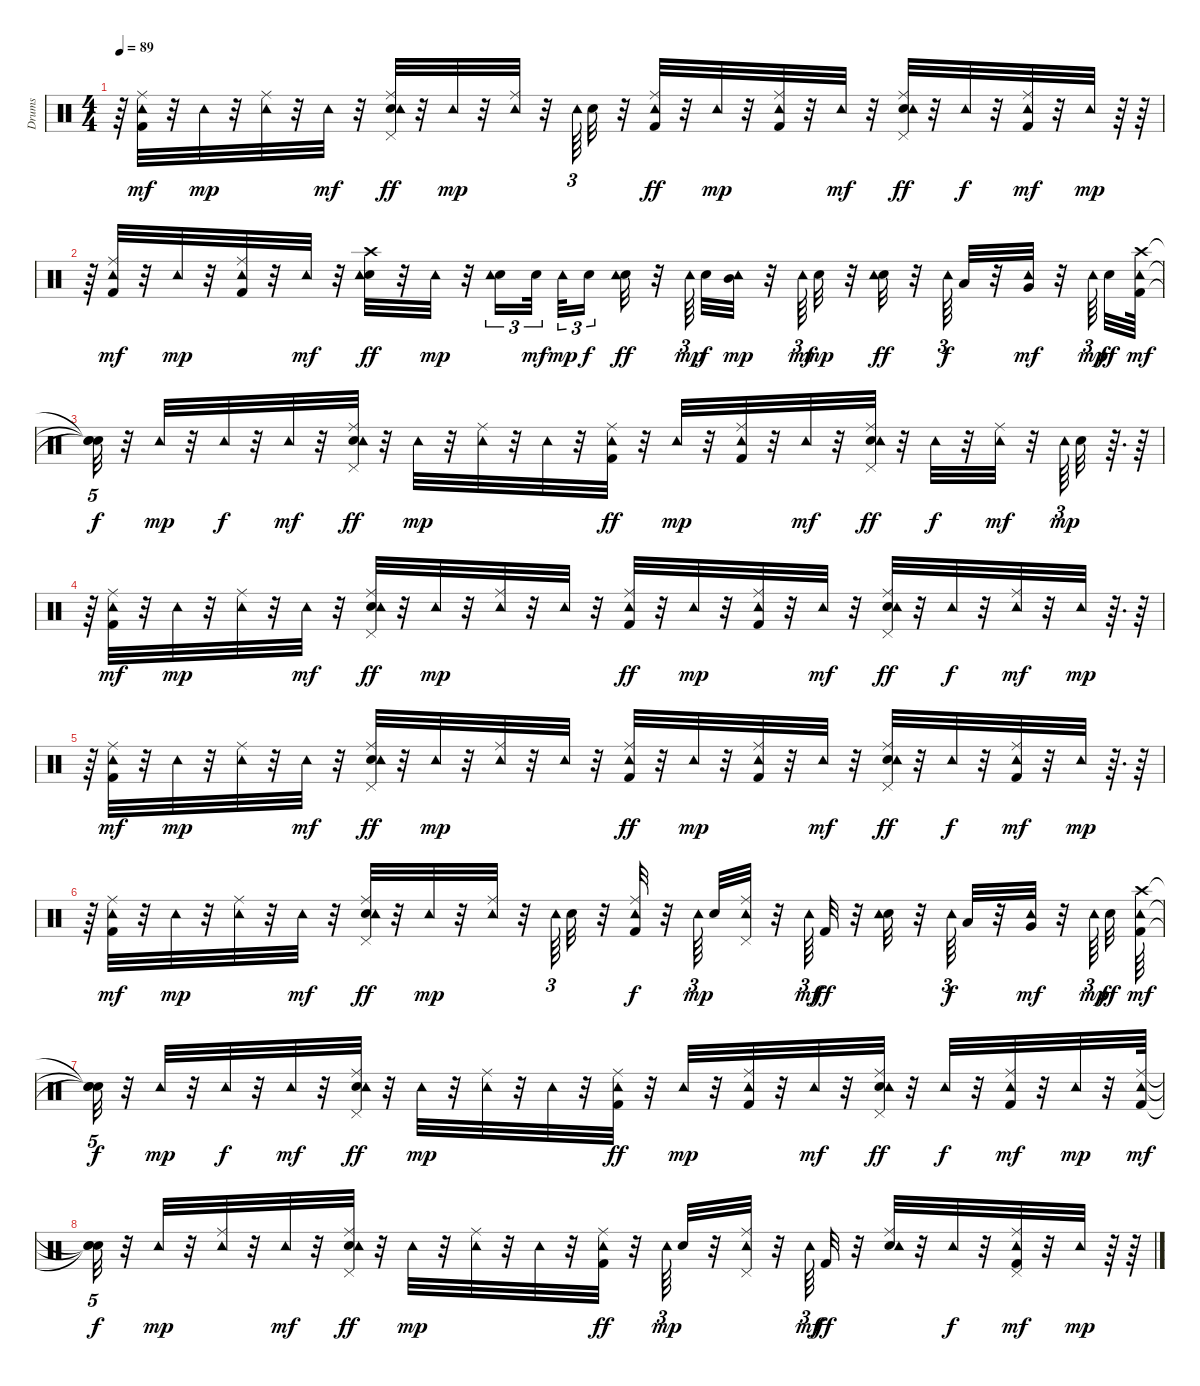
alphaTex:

\track ("Drums   " "Drums   ") {instrument percussion}
\staff {score}
\articulation defaults
\ts (4 4)
\tempo 89
\clef neutral
\ks c
r.64{dy mp} ("Kick (hit) 2" "Ride (middle)" "Tambourine (hit)").32{dy mf} r.32 "Tambourine (hit)".32{dy mp} r.32 ("Ride (middle)" "Tambourine (hit)").32 r.32 "Tambourine (hit)".32{dy mf} r.32 ("Electric Snare (hit)" "Pedal Hi-Hat (hit)" "Ride (middle)" "Tambourine (hit)").32{dy ff} r.32 "Tambourine (hit)".32{dy mp} r.32 ("Ride (middle)" "Tambourine (hit)").32 r.32 "Tambourine (hit)".64{tu (3 2)} "Electric Snare (hit)".32 r.32 ("Kick (hit) 2" "Ride (middle)" "Tambourine (hit)").32{dy ff} r.32 "Tambourine (hit)".32{dy mp} r.32 ("Kick (hit) 2" "Ride (middle)" "Tambourine (hit)").32 r.32 "Tambourine (hit)".32{dy mf} r.32 ("Electric Snare (hit)" "Pedal Hi-Hat (hit)" "Ride (middle)" "Tambourine (hit)").32{dy ff} r.32 "Tambourine (hit)".32{dy f} r.32 ("Kick (hit) 2" "Ride (middle)" "Tambourine (hit)").32{dy mf} r.32 "Tambourine (hit)".32{dy mp} r.64 r.64 |
r.64 ("Kick (hit) 2" "Ride (middle)" "Tambourine (hit)").32{dy mf} r.32 "Tambourine (hit)".32{dy mp} r.32 ("Kick (hit) 2" "Ride (middle)" "Tambourine (hit)").32 r.32 "Tambourine (hit)".32{dy mf} r.32 ("Electric Snare (hit)" "Crash high (hit)" "Tambourine (hit)").32{dy ff} r.32 "Tambourine (hit)".32{dy mp} r.32 ("Electric Snare (hit)" "Tambourine (hit)").16{tu (3 2)} "Electric Snare (hit)".32{tu (3 2) dy mf beam splitsecondary} "Tambourine (hit)".32{tu (3 2) dy mp} "Electric Snare (hit)".16{tu (3 2) dy f} ("Electric Snare (hit)" "Tambourine (hit)").32{dy ff} r.32 "Tambourine (hit)".64{tu (3 2) dy mp beam splitsecondary} "Electric Snare (hit)".32{dy f} ("Mid Tom (hit)" "Tambourine (hit)").32{dy mp} r.32 "Tambourine (hit)".64{tu (3 2) dy mf} "Electric Snare (hit)".32{dy mp} r.32 ("Electric Snare (hit)" "Tambourine (hit)").32{dy ff} r.32 "Tambourine (hit)".64{tu (3 2) dy f} "Low Tom (hit)".32 r.32 ("Very Low Tom (hit)" "Tambourine (hit)").32{dy mf} r.32 "Tambourine (hit)".64{tu (3 2) dy mp beam splitsecondary} "Electric Snare (hit)".32{dy ff} ("Kick (hit) 2" "Crash high (hit)" "Tambourine (hit)").64{dy mf} |
("Snare (hit)"{t} "Snare (hit)"{t} "Snare (hit)"{t}).32{tu (5 4) dy f} r.32 "Tambourine (hit)".32{dy mp} r.32 "Tambourine (hit)".32{dy f} r.32 "Tambourine (hit)".32{dy mf} r.32 ("Electric Snare (hit)" "Pedal Hi-Hat (hit)" "Ride (middle)" "Tambourine (hit)").32{dy ff} r.32 "Tambourine (hit)".32{dy mp} r.32 ("Ride (middle)" "Tambourine (hit)").32 r.32 "Tambourine (hit)".32 r.32 ("Kick (hit) 2" "Ride (middle)" "Tambourine (hit)").32{dy ff} r.32 "Tambourine (hit)".32{dy mp} r.32 ("Kick (hit) 2" "Ride (middle)" "Tambourine (hit)").32 r.32 "Tambourine (hit)".32{dy mf} r.32 ("Electric Snare (hit)" "Pedal Hi-Hat (hit)" "Ride (middle)" "Tambourine (hit)").32{dy ff} r.32 "Tambourine (hit)".32{dy f} r.32 ("Ride (middle)" "Tambourine (hit)").32{dy mf} r.32 "Tambourine (hit)".64{tu (3 2) dy mp} "Electric Snare (hit)".32 r.64{d} r.64 |
r.64 ("Kick (hit) 2" "Ride (middle)" "Tambourine (hit)").32{dy mf} r.32 "Tambourine (hit)".32{dy mp} r.32 ("Ride (middle)" "Tambourine (hit)").32 r.32 "Tambourine (hit)".32{dy mf} r.32 ("Electric Snare (hit)" "Pedal Hi-Hat (hit)" "Ride (middle)" "Tambourine (hit)").32{dy ff} r.32 "Tambourine (hit)".32{dy mp} r.32 ("Ride (middle)" "Tambourine (hit)").32 r.32 "Tambourine (hit)".32 r.32 ("Kick (hit) 2" "Ride (middle)" "Tambourine (hit)").32{dy ff} r.32 "Tambourine (hit)".32{dy mp} r.32 ("Kick (hit) 2" "Ride (middle)" "Tambourine (hit)").32 r.32 "Tambourine (hit)".32{dy mf} r.32 ("Electric Snare (hit)" "Pedal Hi-Hat (hit)" "Ride (middle)" "Tambourine (hit)").32{dy ff} r.32 "Tambourine (hit)".32{dy f} r.32 ("Ride (middle)" "Tambourine (hit)").32{dy mf} r.32 "Tambourine (hit)".32{dy mp} r.64{d} r.64 |
r.64 ("Kick (hit) 2" "Ride (middle)" "Tambourine (hit)").32{dy mf} r.32 "Tambourine (hit)".32{dy mp} r.32 ("Ride (middle)" "Tambourine (hit)").32 r.32 "Tambourine (hit)".32{dy mf} r.32 ("Electric Snare (hit)" "Pedal Hi-Hat (hit)" "Ride (middle)" "Tambourine (hit)").32{dy ff} r.32 "Tambourine (hit)".32{dy mp} r.32 ("Ride (middle)" "Tambourine (hit)").32 r.32 "Tambourine (hit)".32 r.32 ("Kick (hit) 2" "Ride (middle)" "Tambourine (hit)").32{dy ff} r.32 "Tambourine (hit)".32{dy mp} r.32 ("Kick (hit) 2" "Ride (middle)" "Tambourine (hit)").32 r.32 "Tambourine (hit)".32{dy mf} r.32 ("Electric Snare (hit)" "Pedal Hi-Hat (hit)" "Ride (middle)" "Tambourine (hit)").32{dy ff} r.32 "Tambourine (hit)".32{dy f} r.32 ("Kick (hit) 2" "Ride (middle)" "Tambourine (hit)").32{dy mf} r.32 "Tambourine (hit)".32{dy mp} r.64{d} r.64 |
r.64 ("Kick (hit) 2" "Ride (middle)" "Tambourine (hit)").32{dy mf} r.32 "Tambourine (hit)".32{dy mp} r.32 ("Ride (middle)" "Tambourine (hit)").32 r.32 "Tambourine (hit)".32{dy mf} r.32 ("Electric Snare (hit)" "Pedal Hi-Hat (hit)" "Ride (middle)" "Tambourine (hit)").32{dy ff} r.32 "Tambourine (hit)".32{dy mp} r.32 ("Ride (middle)" "Tambourine (hit)").32 r.32 "Tambourine (hit)".64{tu (3 2)} "Electric Snare (hit)".32 r.32 ("Kick (hit) 2" "Ride (middle)" "Tambourine (hit)").32{dy f} r.32 "Tambourine (hit)".64{tu (3 2) dy mp beam splitsecondary} "Electric Snare (hit)".32 ("Pedal Hi-Hat (hit)" "Ride (middle)" "Tambourine (hit)").32 r.32 "Tambourine (hit)".64{tu (3 2) dy mf} "Kick (hit) 2".32{dy ff} r.32 ("Electric Snare (hit)" "Tambourine (hit)").32 r.32 "Tambourine (hit)".64{tu (3 2) dy f} "Low Tom (hit)".32 r.32 ("Very Low Tom (hit)" "Tambourine (hit)").32{dy mf} r.32 "Tambourine (hit)".64{tu (3 2) dy mp} "Electric Snare (hit)".32{dy ff} ("Kick (hit) 2" "Crash high (hit)" "Tambourine (hit)").64{dy mf} |
("Snare (hit)"{t} "Snare (hit)"{t} "Snare (hit)"{t}).32{tu (5 4) dy f} r.32 "Tambourine (hit)".32{dy mp} r.32 "Tambourine (hit)".32{dy f} r.32 "Tambourine (hit)".32{dy mf} r.32 ("Electric Snare (hit)" "Pedal Hi-Hat (hit)" "Ride (middle)" "Tambourine (hit)").32{dy ff} r.32 "Tambourine (hit)".32{dy mp} r.32 ("Ride (middle)" "Tambourine (hit)").32 r.32 "Tambourine (hit)".32 r.32 ("Kick (hit) 2" "Ride (middle)" "Tambourine (hit)").32{dy ff} r.32 "Tambourine (hit)".32{dy mp} r.32 ("Kick (hit) 2" "Ride (middle)" "Tambourine (hit)").32 r.32 "Tambourine (hit)".32{dy mf} r.32 ("Electric Snare (hit)" "Pedal Hi-Hat (hit)" "Ride (middle)" "Tambourine (hit)").32{dy ff} r.32 "Tambourine (hit)".32{dy f} r.32 ("Kick (hit) 2" "Ride (middle)" "Tambourine (hit)").32{dy mf} r.32 "Tambourine (hit)".32{dy mp} r.32 ("Kick (hit) 2" "Ride (middle)" "Tambourine (hit)").64{dy mf} |
("Snare (hit)"{t} "Snare (hit)"{t} "Snare (hit)"{t}).32{tu (5 4) dy f} r.32 "Tambourine (hit)".32{dy mp} r.32 ("Ride (middle)" "Tambourine (hit)").32 r.32 "Tambourine (hit)".32{dy mf} r.32 ("Electric Snare (hit)" "Pedal Hi-Hat (hit)" "Ride (middle)" "Tambourine (hit)").32{dy ff} r.32 "Tambourine (hit)".32{dy mp} r.32 ("Ride (middle)" "Tambourine (hit)").32 r.32 "Tambourine (hit)".32 r.32 ("Kick (hit) 2" "Ride (middle)" "Tambourine (hit)").32{dy ff} r.32 "Tambourine (hit)".64{tu (3 2) dy mp} "Electric Snare (hit)".32 r.32 ("Pedal Hi-Hat (hit)" "Ride (middle)" "Tambourine (hit)").32 r.32 "Tambourine (hit)".64{tu (3 2) dy mf} "Kick (hit) 2".32{dy ff} r.32 ("Electric Snare (hit)" "Ride (middle)" "Tambourine (hit)").32 r.32 "Tambourine (hit)".32{dy f} r.32 ("Kick (hit) 2" "Pedal Hi-Hat (hit)" "Ride (middle)" "Tambourine (hit)").32{dy mf} r.32 "Tambourine (hit)".32{dy mp} r.64 r.64
